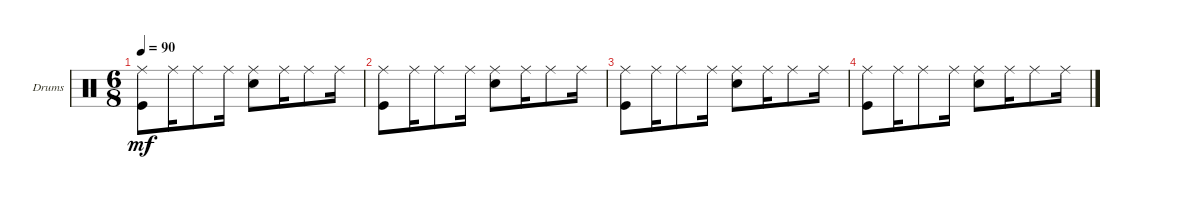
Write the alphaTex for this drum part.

\defaultSystemsLayout 4
\bracketExtendMode groupsimilarinstruments
\firstSystemTrackNameOrientation horizontal
\otherSystemsTrackNameOrientation horizontal
\track ("Drumkit" "Drums") {instrument percussion}
\staff {score}
\articulation defaults
\ts (6 8)
\tempo 90
\clef neutral
\ks c
("Ride (middle)" "Kick (hit)").8{dy mf} "Ride (middle)".16 "Ride (middle)".8 "Ride (middle)".16 ("Ride (middle)" "Snare (hit) 2").8 "Ride (middle)".16 "Ride (middle)".8 "Ride (middle)".16 |
("Ride (middle)" "Kick (hit)").8 "Ride (middle)".16 "Ride (middle)".8 "Ride (middle)".16 ("Ride (middle)" "Snare (hit) 2").8 "Ride (middle)".16 "Ride (middle)".8 "Ride (middle)".16 |
("Ride (middle)" "Kick (hit)").8 "Ride (middle)".16 "Ride (middle)".8 "Ride (middle)".16 ("Ride (middle)" "Snare (hit) 2").8 "Ride (middle)".16 "Ride (middle)".8 "Ride (middle)".16 |
("Ride (middle)" "Kick (hit)").8 "Ride (middle)".16 "Ride (middle)".8 "Ride (middle)".16 ("Ride (middle)" "Snare (hit) 2").8 "Ride (middle)".16 "Ride (middle)".8 "Ride (middle)".16
